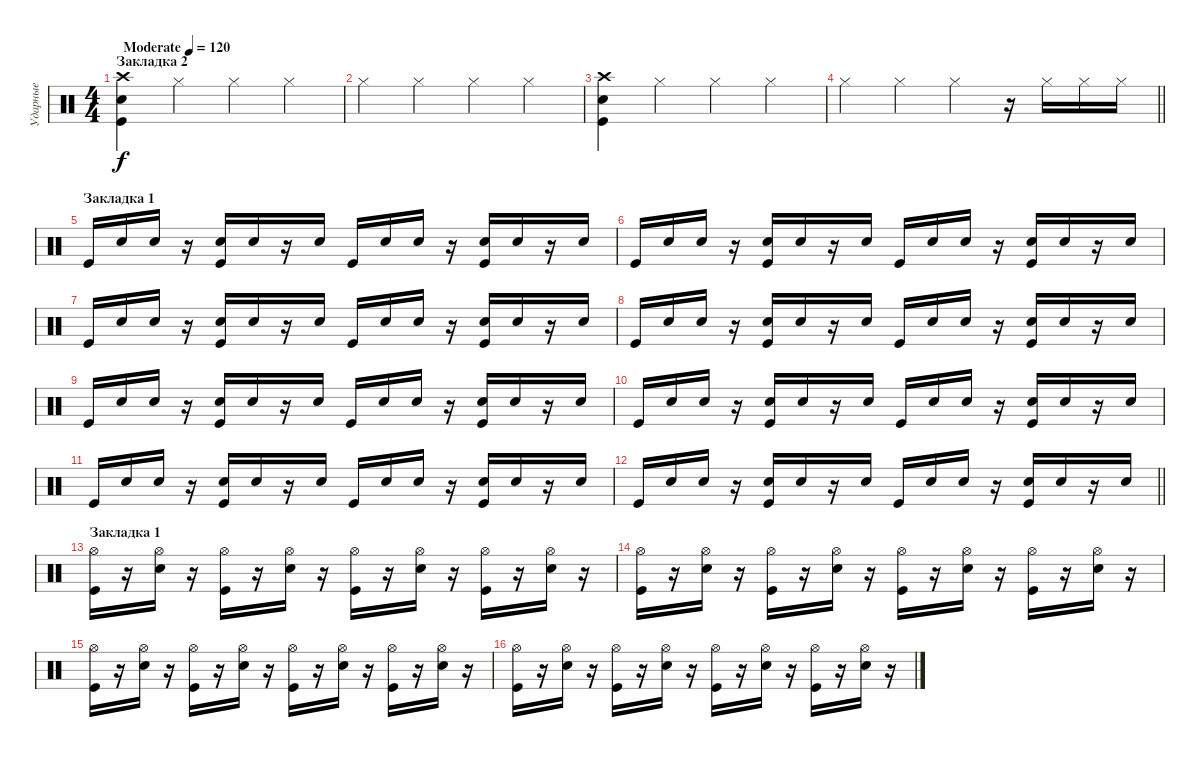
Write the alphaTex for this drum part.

\track ("Ударные" "Ударные") {instrument percussion}
\staff {score}
\articulation defaults
\ts (4 4)
\section ("" "Закладка 2")
\tempo (120 "Moderate")
\clef neutral
\ks c
("Crash high (hit)" "Snare (hit) 2" "Kick (hit)").4{dy f} "Hi-Hat (closed)".4 "Hi-Hat (closed)".4 "Hi-Hat (closed)".4 |
"Hi-Hat (closed)".4 "Hi-Hat (closed)".4 "Hi-Hat (closed)".4 "Hi-Hat (closed)".4 |
("Crash high (hit)" "Snare (hit) 2" "Kick (hit)").4 "Hi-Hat (closed)".4 "Hi-Hat (closed)".4 "Hi-Hat (closed)".4 |
\barLineRight lightlight "Hi-Hat (closed)".4 "Hi-Hat (closed)".4 "Hi-Hat (closed)".4
r.16 "Hi-Hat (closed)".16 "Hi-Hat (closed)".16 "Hi-Hat (closed)".16 |
\section ("" "Закладка 1")
"Kick (hit)".16 "Snare (hit) 2".16 "Snare (hit) 2".16 r.16 ("Snare (hit) 2" "Kick (hit)").16 "Snare (hit) 2".16 r.16 "Snare (hit) 2".16 "Kick (hit)".16 "Snare (hit) 2".16 "Snare (hit) 2".16 r.16 ("Snare (hit) 2" "Kick (hit)").16 "Snare (hit) 2".16 r.16 "Snare (hit) 2".16 |
"Kick (hit)".16 "Snare (hit) 2".16 "Snare (hit) 2".16 r.16 ("Snare (hit) 2" "Kick (hit)").16 "Snare (hit) 2".16 r.16 "Snare (hit) 2".16 "Kick (hit)".16 "Snare (hit) 2".16 "Snare (hit) 2".16 r.16 ("Snare (hit) 2" "Kick (hit)").16 "Snare (hit) 2".16 r.16 "Snare (hit) 2".16 |
"Kick (hit)".16 "Snare (hit) 2".16 "Snare (hit) 2".16 r.16 ("Snare (hit) 2" "Kick (hit)").16 "Snare (hit) 2".16 r.16 "Snare (hit) 2".16 "Kick (hit)".16 "Snare (hit) 2".16 "Snare (hit) 2".16 r.16 ("Snare (hit) 2" "Kick (hit)").16 "Snare (hit) 2".16 r.16 "Snare (hit) 2".16 |
"Kick (hit)".16 "Snare (hit) 2".16 "Snare (hit) 2".16 r.16 ("Snare (hit) 2" "Kick (hit)").16 "Snare (hit) 2".16 r.16 "Snare (hit) 2".16 "Kick (hit)".16 "Snare (hit) 2".16 "Snare (hit) 2".16 r.16 ("Snare (hit) 2" "Kick (hit)").16 "Snare (hit) 2".16 r.16 "Snare (hit) 2".16 |
"Kick (hit)".16 "Snare (hit) 2".16 "Snare (hit) 2".16 r.16 ("Snare (hit) 2" "Kick (hit)").16 "Snare (hit) 2".16 r.16 "Snare (hit) 2".16 "Kick (hit)".16 "Snare (hit) 2".16 "Snare (hit) 2".16 r.16 ("Snare (hit) 2" "Kick (hit)").16 "Snare (hit) 2".16 r.16 "Snare (hit) 2".16 |
"Kick (hit)".16 "Snare (hit) 2".16 "Snare (hit) 2".16 r.16 ("Snare (hit) 2" "Kick (hit)").16 "Snare (hit) 2".16 r.16 "Snare (hit) 2".16 "Kick (hit)".16 "Snare (hit) 2".16 "Snare (hit) 2".16 r.16 ("Snare (hit) 2" "Kick (hit)").16 "Snare (hit) 2".16 r.16 "Snare (hit) 2".16 |
"Kick (hit)".16 "Snare (hit) 2".16 "Snare (hit) 2".16 r.16 ("Snare (hit) 2" "Kick (hit)").16 "Snare (hit) 2".16 r.16 "Snare (hit) 2".16 "Kick (hit)".16 "Snare (hit) 2".16 "Snare (hit) 2".16 r.16 ("Snare (hit) 2" "Kick (hit)").16 "Snare (hit) 2".16 r.16 "Snare (hit) 2".16 |
\barLineRight lightlight "Kick (hit)".16 "Snare (hit) 2".16 "Snare (hit) 2".16
r.16 ("Snare (hit) 2" "Kick (hit)").16 "Snare (hit) 2".16 r.16 "Snare (hit) 2".16 "Kick (hit)".16 "Snare (hit) 2".16 "Snare (hit) 2".16 r.16 ("Snare (hit) 2" "Kick (hit)").16 "Snare (hit) 2".16 r.16 "Snare (hit) 2".16 |
\section ("" "Закладка 1")
("Hi-Hat (open)" "Kick (hit)").16 r.16 ("Hi-Hat (open)" "Snare (hit) 2").16 r.16 ("Hi-Hat (open)" "Kick (hit)").16 r.16 ("Hi-Hat (open)" "Snare (hit) 2").16 r.16 ("Hi-Hat (open)" "Kick (hit)").16 r.16 ("Hi-Hat (open)" "Snare (hit) 2").16 r.16 ("Hi-Hat (open)" "Kick (hit)").16 r.16 ("Hi-Hat (open)" "Snare (hit) 2").16 r.16 |
("Hi-Hat (open)" "Kick (hit)").16 r.16 ("Hi-Hat (open)" "Snare (hit) 2").16 r.16 ("Hi-Hat (open)" "Kick (hit)").16 r.16 ("Hi-Hat (open)" "Snare (hit) 2").16 r.16 ("Hi-Hat (open)" "Kick (hit)").16 r.16 ("Hi-Hat (open)" "Snare (hit) 2").16 r.16 ("Hi-Hat (open)" "Kick (hit)").16 r.16 ("Hi-Hat (open)" "Snare (hit) 2").16 r.16 |
("Hi-Hat (open)" "Kick (hit)").16 r.16 ("Hi-Hat (open)" "Snare (hit) 2").16 r.16 ("Hi-Hat (open)" "Kick (hit)").16 r.16 ("Hi-Hat (open)" "Snare (hit) 2").16 r.16 ("Hi-Hat (open)" "Kick (hit)").16 r.16 ("Hi-Hat (open)" "Snare (hit) 2").16 r.16 ("Hi-Hat (open)" "Kick (hit)").16 r.16 ("Hi-Hat (open)" "Snare (hit) 2").16 r.16 |
("Hi-Hat (open)" "Kick (hit)").16 r.16 ("Hi-Hat (open)" "Snare (hit) 2").16 r.16 ("Hi-Hat (open)" "Kick (hit)").16 r.16 ("Hi-Hat (open)" "Snare (hit) 2").16 r.16 ("Hi-Hat (open)" "Kick (hit)").16 r.16 ("Hi-Hat (open)" "Snare (hit) 2").16 r.16 ("Hi-Hat (open)" "Kick (hit)").16 r.16 ("Hi-Hat (open)" "Snare (hit) 2").16 r.16
